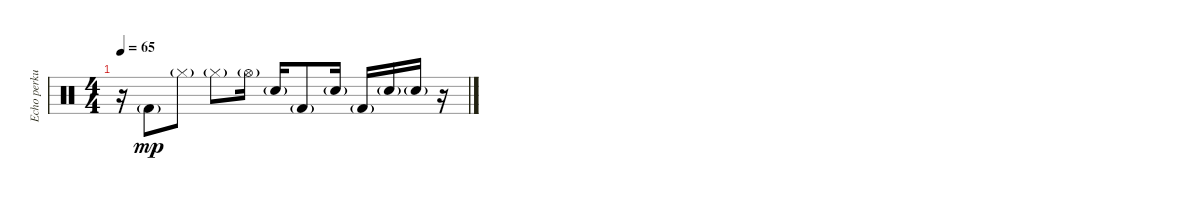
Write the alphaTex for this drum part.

\track ("Echo perkusji 1" "Echo perku") {instrument percussion}
\staff {score}
\articulation defaults
\ts (4 4)
\tempo 65
\clef neutral
\ks c
r.16{dy mp} "Kick (hit) 2"{g}.8 "Hi-Hat (closed)"{g}.8 "Hi-Hat (closed)"{g}.8 "Hi-Hat (open)"{g}.16 "Snare (hit) 2"{g}.16 "Kick (hit) 2"{g}.8 "Snare (hit) 2"{g}.16 "Kick (hit) 2"{g}.16 "Snare (hit) 2"{g}.16 "Snare (hit) 2"{g}.16 r.16
